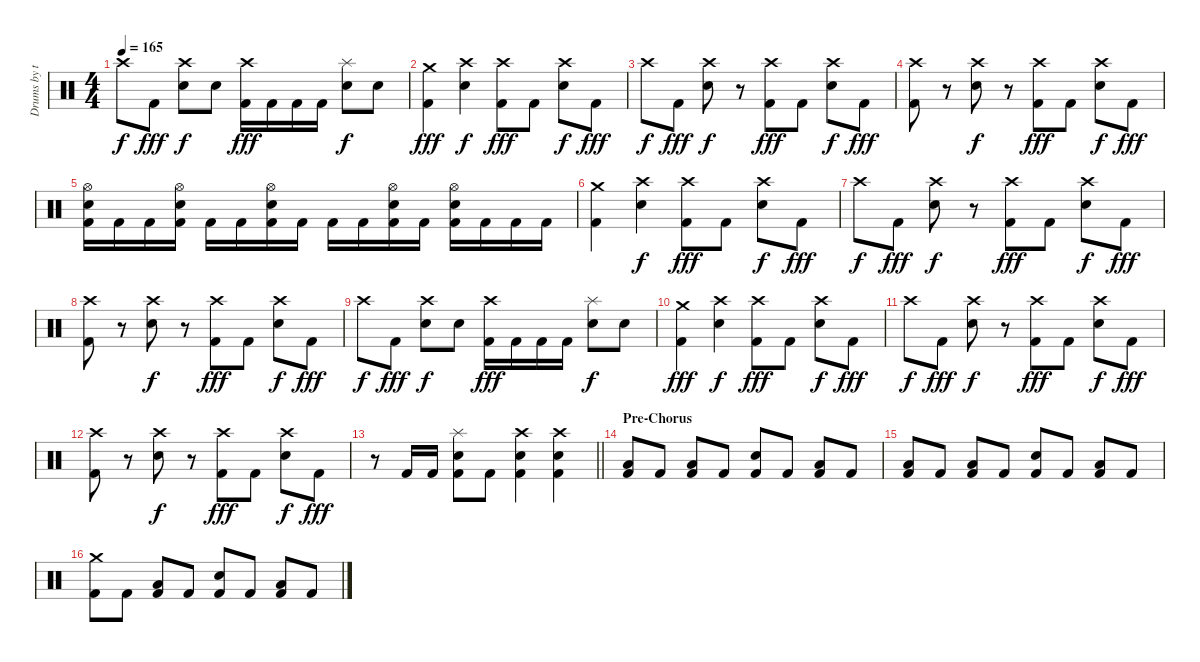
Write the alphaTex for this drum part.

\track ("Drums by terryn0" "Drums by t") {instrument percussion}
\staff {score}
\articulation defaults
\ts (4 4)
\tempo 165
\clef neutral
\ks c "Crash high (hit)".8{dy f} "Kick (hit) 2".8{dy fff}
("Crash high (hit)" "Electric Snare (hit)").8{dy f} "Electric Snare (hit)".8 ("Crash high (hit)" "Kick (hit) 2").16{dy fff} "Kick (hit) 2".16 "Kick (hit) 2".16 "Kick (hit) 2".16 ("Splash (hit)" "Electric Snare (hit)").8{dy f} "Electric Snare (hit)".8 |
("Crash medium (hit)" "Kick (hit) 2").4{dy fff} ("Crash high (hit)" "Electric Snare (hit)").4{dy f} ("Crash high (hit)" "Kick (hit) 2").8{dy fff} "Kick (hit) 2".8 ("Crash high (hit)" "Electric Snare (hit)").8{dy f} "Kick (hit) 2".8{dy fff} |
"Crash high (hit)".8{dy f} "Kick (hit) 2".8{dy fff} ("Crash high (hit)" "Electric Snare (hit)").8{dy f} r.8 ("Crash high (hit)" "Kick (hit) 2").8{dy fff} "Kick (hit) 2".8 ("Crash high (hit)" "Electric Snare (hit)").8{dy f} "Kick (hit) 2".8{dy fff} |
("Crash high (hit)" "Kick (hit) 2").8 r.8 ("Crash high (hit)" "Electric Snare (hit)").8{dy f} r.8 ("Crash high (hit)" "Kick (hit) 2").8{dy fff} "Kick (hit) 2".8 ("Crash high (hit)" "Electric Snare (hit)").8{dy f} "Kick (hit) 2".8{dy fff} |
("Hi-Hat (open)" "Electric Snare (hit)" "Kick (hit) 2").16 "Kick (hit) 2".16 "Kick (hit) 2".16 ("Hi-Hat (open)" "Electric Snare (hit)" "Kick (hit) 2").16 "Kick (hit) 2".16 "Kick (hit) 2".16 ("Hi-Hat (open)" "Electric Snare (hit)" "Kick (hit) 2").16 "Kick (hit) 2".16 "Kick (hit) 2".16 "Kick (hit) 2".16 ("Hi-Hat (open)" "Electric Snare (hit)" "Kick (hit) 2").16 "Kick (hit) 2".16 ("Hi-Hat (open)" "Electric Snare (hit)" "Kick (hit) 2").16 "Kick (hit) 2".16 "Kick (hit) 2".16 "Kick (hit) 2".16 |
("Crash medium (hit)" "Kick (hit) 2").4 ("Crash high (hit)" "Electric Snare (hit)").4{dy f} ("Crash high (hit)" "Kick (hit) 2").8{dy fff} "Kick (hit) 2".8 ("Crash high (hit)" "Electric Snare (hit)").8{dy f} "Kick (hit) 2".8{dy fff} |
"Crash high (hit)".8{dy f} "Kick (hit) 2".8{dy fff} ("Crash high (hit)" "Electric Snare (hit)").8{dy f} r.8 ("Crash high (hit)" "Kick (hit) 2").8{dy fff} "Kick (hit) 2".8 ("Crash high (hit)" "Electric Snare (hit)").8{dy f} "Kick (hit) 2".8{dy fff} |
("Crash high (hit)" "Kick (hit) 2").8 r.8 ("Crash high (hit)" "Electric Snare (hit)").8{dy f} r.8 ("Crash high (hit)" "Kick (hit) 2").8{dy fff} "Kick (hit) 2".8 ("Crash high (hit)" "Electric Snare (hit)").8{dy f} "Kick (hit) 2".8{dy fff} |
"Crash high (hit)".8{dy f} "Kick (hit) 2".8{dy fff} ("Crash high (hit)" "Electric Snare (hit)").8{dy f} "Electric Snare (hit)".8 ("Crash high (hit)" "Kick (hit) 2").16{dy fff} "Kick (hit) 2".16 "Kick (hit) 2".16 "Kick (hit) 2".16 ("Splash (hit)" "Electric Snare (hit)").8{dy f} "Electric Snare (hit)".8 |
("Crash medium (hit)" "Kick (hit) 2").4{dy fff} ("Crash high (hit)" "Electric Snare (hit)").4{dy f} ("Crash high (hit)" "Kick (hit) 2").8{dy fff} "Kick (hit) 2".8 ("Crash high (hit)" "Electric Snare (hit)").8{dy f} "Kick (hit) 2".8{dy fff} |
"Crash high (hit)".8{dy f} "Kick (hit) 2".8{dy fff} ("Crash high (hit)" "Electric Snare (hit)").8{dy f} r.8 ("Crash high (hit)" "Kick (hit) 2").8{dy fff} "Kick (hit) 2".8 ("Crash high (hit)" "Electric Snare (hit)").8{dy f} "Kick (hit) 2".8{dy fff} |
("Crash high (hit)" "Kick (hit) 2").8 r.8 ("Crash high (hit)" "Electric Snare (hit)").8{dy f} r.8 ("Crash high (hit)" "Kick (hit) 2").8{dy fff} "Kick (hit) 2".8 ("Crash high (hit)" "Electric Snare (hit)").8{dy f} "Kick (hit) 2".8{dy fff} |
\barLineRight lightlight
r.8 "Kick (hit) 2".16 "Kick (hit) 2".16 ("Splash (hit)" "Electric Snare (hit)" "Kick (hit) 2").8 "Kick (hit) 2".8 ("Crash high (hit)" "Electric Snare (hit)" "Kick (hit) 2").4 ("Crash high (hit)" "Electric Snare (hit)" "Kick (hit) 2").4 |
\section ("" "Pre-Chorus")
("Low Tom (hit)" "Kick (hit) 2").8 "Kick (hit) 2".8 ("Low Tom (hit)" "Kick (hit) 2").8 "Kick (hit) 2".8 ("Electric Snare (hit)" "Kick (hit) 2").8 "Kick (hit) 2".8 ("Low Tom (hit)" "Kick (hit) 2").8 "Kick (hit) 2".8 |
("Low Tom (hit)" "Kick (hit) 2").8 "Kick (hit) 2".8 ("Low Tom (hit)" "Kick (hit) 2").8 "Kick (hit) 2".8 ("Electric Snare (hit)" "Kick (hit) 2").8 "Kick (hit) 2".8 ("Low Tom (hit)" "Kick (hit) 2").8 "Kick (hit) 2".8 |
("Crash medium (hit)" "Kick (hit) 2").8 "Kick (hit) 2".8 ("Low Tom (hit)" "Kick (hit) 2").8 "Kick (hit) 2".8 ("Electric Snare (hit)" "Kick (hit) 2").8 "Kick (hit) 2".8 ("Low Tom (hit)" "Kick (hit) 2").8 "Kick (hit) 2".8
